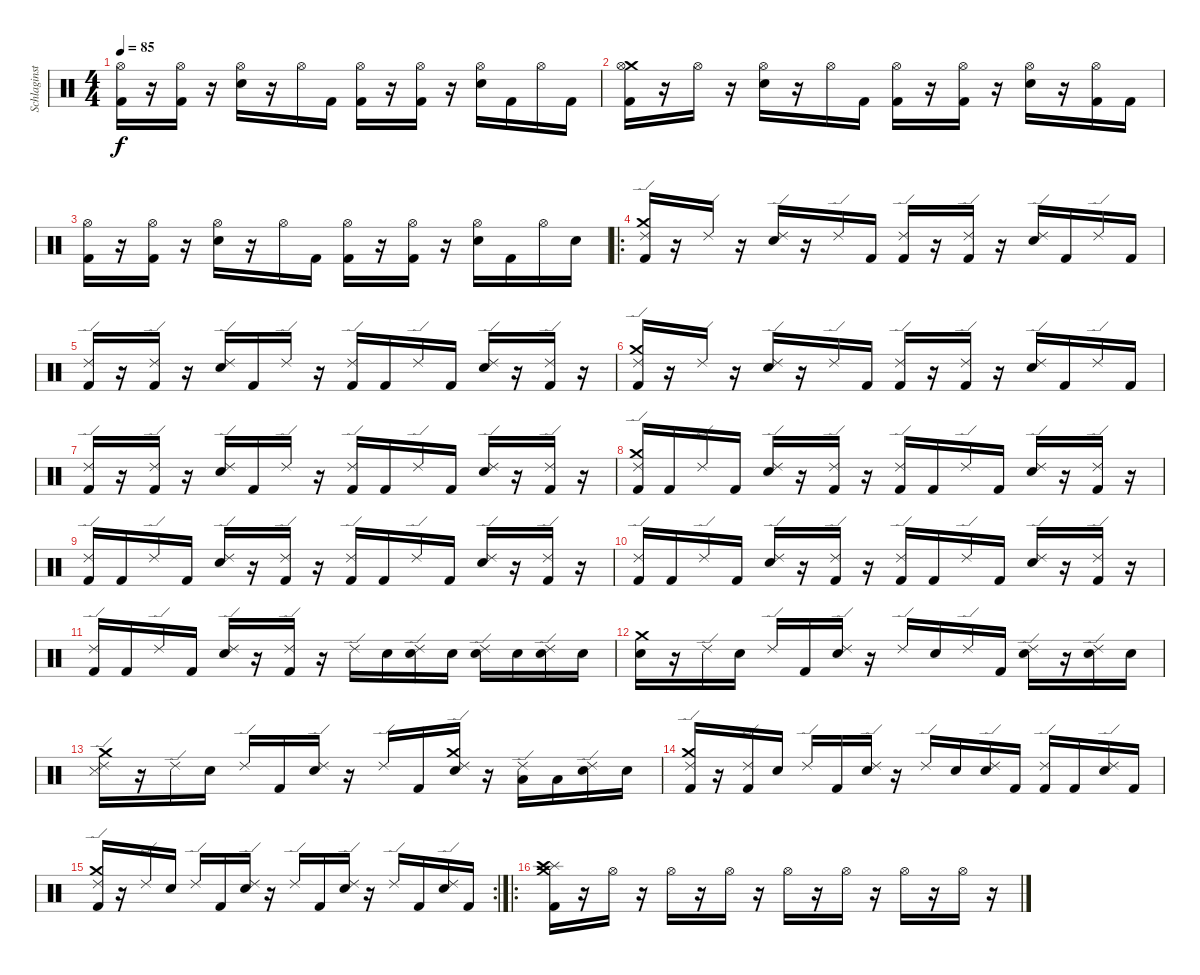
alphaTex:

\track ("Schlaginstrumente - Auswahl" "Schlaginst") {instrument percussion}
\staff {score}
\articulation defaults
\ts (4 4)
\tempo 85
\clef neutral
\ks c
("Kick (hit) 2" "Hi-Hat (open)").16{dy f} r.16 ("Kick (hit) 2" "Hi-Hat (open)").16 r.16 ("Snare (hit) 2" "Hi-Hat (open)").16 r.16 "Hi-Hat (open)".16 "Kick (hit) 2".16 ("Kick (hit) 2" "Hi-Hat (open)").16 r.16 ("Kick (hit) 2" "Hi-Hat (open)").16 r.16 ("Snare (hit) 2" "Hi-Hat (open)").16 "Kick (hit) 2".16 "Hi-Hat (open)".16 "Kick (hit) 2".16 |
("Kick (hit) 2" "Crash medium (hit)" "Hi-Hat (open)").16 r.16 "Hi-Hat (open)".16 r.16 ("Snare (hit) 2" "Hi-Hat (open)").16 r.16 "Hi-Hat (open)".16 "Kick (hit) 2".16 ("Kick (hit) 2" "Hi-Hat (open)").16 r.16 ("Kick (hit) 2" "Hi-Hat (open)").16 r.16 ("Snare (hit) 2" "Hi-Hat (open)").16 r.16 ("Kick (hit) 2" "Hi-Hat (open)").16 "Kick (hit) 2".16 |
("Kick (hit) 2" "Hi-Hat (open)").16 r.16 ("Kick (hit) 2" "Hi-Hat (open)").16 r.16 ("Snare (hit) 2" "Hi-Hat (open)").16 r.16 "Hi-Hat (open)".16 "Kick (hit) 2".16 ("Kick (hit) 2" "Hi-Hat (open)").16 r.16 ("Kick (hit) 2" "Hi-Hat (open)").16 r.16 ("Snare (hit) 2" "Hi-Hat (open)").16 "Kick (hit) 2".16 "Hi-Hat (open)".16 "Snare (hit) 2".16 |
\ro
("Kick (hit) 2" "Crash medium (hit)" "Ride (edge) 2").16 r.16 "Ride (edge) 2".16 r.16 ("Snare (hit) 2" "Ride (edge) 2").16 r.16 "Ride (edge) 2".16 "Kick (hit) 2".16 ("Kick (hit) 2" "Ride (edge) 2").16 r.16 ("Kick (hit) 2" "Ride (edge) 2").16 r.16 ("Snare (hit) 2" "Ride (edge) 2").16 "Kick (hit) 2".16 "Ride (edge) 2".16 "Kick (hit) 2".16 |
("Kick (hit) 2" "Ride (edge) 2").16 r.16 ("Kick (hit) 2" "Ride (edge) 2").16 r.16 ("Snare (hit) 2" "Ride (edge) 2").16 "Kick (hit) 2".16 "Ride (edge) 2".16 r.16 ("Kick (hit) 2" "Ride (edge) 2").16 "Kick (hit) 2".16 "Ride (edge) 2".16 "Kick (hit) 2".16 ("Snare (hit) 2" "Ride (edge) 2").16 r.16 ("Kick (hit) 2" "Ride (edge) 2").16 r.16 |
("Kick (hit) 2" "Crash medium (hit)" "Ride (edge) 2").16 r.16 "Ride (edge) 2".16 r.16 ("Snare (hit) 2" "Ride (edge) 2").16 r.16 "Ride (edge) 2".16 "Kick (hit) 2".16 ("Kick (hit) 2" "Ride (edge) 2").16 r.16 ("Kick (hit) 2" "Ride (edge) 2").16 r.16 ("Snare (hit) 2" "Ride (edge) 2").16 "Kick (hit) 2".16 "Ride (edge) 2".16 "Kick (hit) 2".16 |
("Kick (hit) 2" "Ride (edge) 2").16 r.16 ("Kick (hit) 2" "Ride (edge) 2").16 r.16 ("Snare (hit) 2" "Ride (edge) 2").16 "Kick (hit) 2".16 "Ride (edge) 2".16 r.16 ("Kick (hit) 2" "Ride (edge) 2").16 "Kick (hit) 2".16 "Ride (edge) 2".16 "Kick (hit) 2".16 ("Snare (hit) 2" "Ride (edge) 2").16 r.16 ("Kick (hit) 2" "Ride (edge) 2").16 r.16 |
("Kick (hit) 2" "Crash medium (hit)" "Ride (edge) 2").16 "Kick (hit) 2".16 "Ride (edge) 2".16 "Kick (hit) 2".16 ("Snare (hit) 2" "Ride (edge) 2").16 r.16 ("Kick (hit) 2" "Ride (edge) 2").16 r.16 ("Kick (hit) 2" "Ride (edge) 2").16 "Kick (hit) 2".16 "Ride (edge) 2".16 "Kick (hit) 2".16 ("Snare (hit) 2" "Ride (edge) 2").16 r.16 ("Kick (hit) 2" "Ride (edge) 2").16 r.16 |
("Kick (hit) 2" "Ride (edge) 2").16 "Kick (hit) 2".16 "Ride (edge) 2".16 "Kick (hit) 2".16 ("Snare (hit) 2" "Ride (edge) 2").16 r.16 ("Kick (hit) 2" "Ride (edge) 2").16 r.16 ("Kick (hit) 2" "Ride (edge) 2").16 "Kick (hit) 2".16 "Ride (edge) 2".16 "Kick (hit) 2".16 ("Snare (hit) 2" "Ride (edge) 2").16 r.16 ("Kick (hit) 2" "Ride (edge) 2").16 r.16 |
("Kick (hit) 2" "Ride (edge) 2").16 "Kick (hit) 2".16 "Ride (edge) 2".16 "Kick (hit) 2".16 ("Snare (hit) 2" "Ride (edge) 2").16 r.16 ("Kick (hit) 2" "Ride (edge) 2").16 r.16 ("Kick (hit) 2" "Ride (edge) 2").16 "Kick (hit) 2".16 "Ride (edge) 2".16 "Kick (hit) 2".16 ("Snare (hit) 2" "Ride (edge) 2").16 r.16 ("Kick (hit) 2" "Ride (edge) 2").16 r.16 |
("Kick (hit) 2" "Ride (edge) 2").16 "Kick (hit) 2".16 "Ride (edge) 2".16 "Kick (hit) 2".16 ("Snare (hit) 2" "Ride (edge) 2").16 r.16 ("Kick (hit) 2" "Ride (edge) 2").16 r.16 "Ride (edge) 2".16 "Snare (hit) 2".16 ("Snare (hit) 2" "Ride (edge) 2").16 "Snare (hit) 2".16 ("Snare (hit) 2" "Ride (edge) 2").16 "Snare (hit) 2".16 ("Snare (hit) 2" "Ride (edge) 2").16 "Snare (hit) 2".16 |
("Snare (hit) 2" "Crash medium (hit)").16 r.16 "Ride (edge) 2".16 "Snare (hit) 2".16 "Ride (edge) 2".16 "Kick (hit) 2".16 ("Snare (hit) 2" "Ride (edge) 2").16 r.16 "Ride (edge) 2".16 "Snare (hit) 2".16 "Ride (edge) 2".16 "Kick (hit) 2".16 ("Snare (hit) 2" "Ride (edge) 2").16 r.16 ("Snare (hit) 2" "Ride (edge) 2").16 "Snare (hit) 2".16 |
("Snare (side stick) 3" "Crash medium (hit)" "Ride (edge) 2").16 r.16 "Ride (edge) 2".16 "Snare (hit) 2".16 "Ride (edge) 2".16 "Kick (hit) 2".16 ("Snare (hit) 2" "Ride (edge) 2").16 r.16 "Ride (edge) 2".16 "Kick (hit) 2".16 ("Snare (hit) 2" "Crash medium (hit)" "Ride (edge) 2").16 r.16 ("Low Tom (hit)" "Ride (edge) 2").16 "Low Tom (hit)".16 ("Snare (hit) 2" "Ride (edge) 2").16 "Snare (hit) 2".16 |
("Kick (hit) 2" "Crash medium (hit)" "Ride (edge) 2").16 r.16 ("Kick (hit) 2" "Ride (edge) 2").16 "Snare (hit) 2".16 "Ride (edge) 2".16 "Kick (hit) 2".16 ("Snare (hit) 2" "Ride (edge) 2").16 r.16 "Ride (edge) 2".16 "Snare (hit) 2".16 ("Snare (hit) 2" "Ride (edge) 2").16 "Kick (hit) 2".16 ("Kick (hit) 2" "Ride (edge) 2").16 "Kick (hit) 2".16 ("Snare (hit) 2" "Ride (edge) 2").16 "Kick (hit) 2".16 |
\rc 2
("Kick (hit) 2" "Crash medium (hit)" "Ride (edge) 2").16 r.16 "Ride (edge) 2".16 "Snare (hit) 2".16 "Ride (edge) 2".16 "Kick (hit) 2".16 ("Snare (hit) 2" "Ride (edge) 2").16 r.16 "Ride (edge) 2".16 "Kick (hit) 2".16 ("Snare (hit) 2" "Ride (edge) 2").16 r.16 "Ride (edge) 2".16 "Kick (hit) 2".16 ("Snare (hit) 2" "Ride (edge) 2").16 "Kick (hit) 2".16 |
\ro
("Kick (hit) 2" "Splash (hit)" "Crash medium (hit)" "Crash high (hit)").16 r.16 "Hi-Hat (open)".16 r.16 "Hi-Hat (open)".16 r.16 "Hi-Hat (open)".16 r.16 "Hi-Hat (open)".16 r.16 "Hi-Hat (open)".16 r.16 "Hi-Hat (open)".16 r.16 "Hi-Hat (open)".16 r.16
